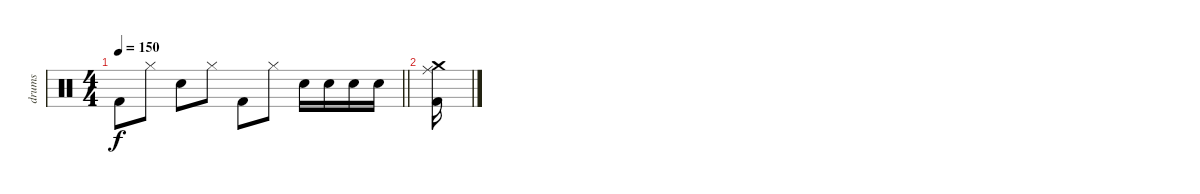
\track ("drums" "drums") {instrument percussion}
\staff {score}
\articulation defaults
\ts (4 4)
\tempo 150
\clef neutral
\barLineRight lightlight
\ks c "Kick (hit) 2".8{dy f} "Hi-Hat (closed)".8 "Electric Snare (hit)".8 "Hi-Hat (closed)".8 "Kick (hit) 2".8 "Hi-Hat (closed)".8 "Electric Snare (hit)".16 "Electric Snare (hit)".16 "Electric Snare (hit)".16 "Electric Snare (hit)".16
|
("Ride (middle)" "Kick (hit) 2" "Crash medium (hit)").16
